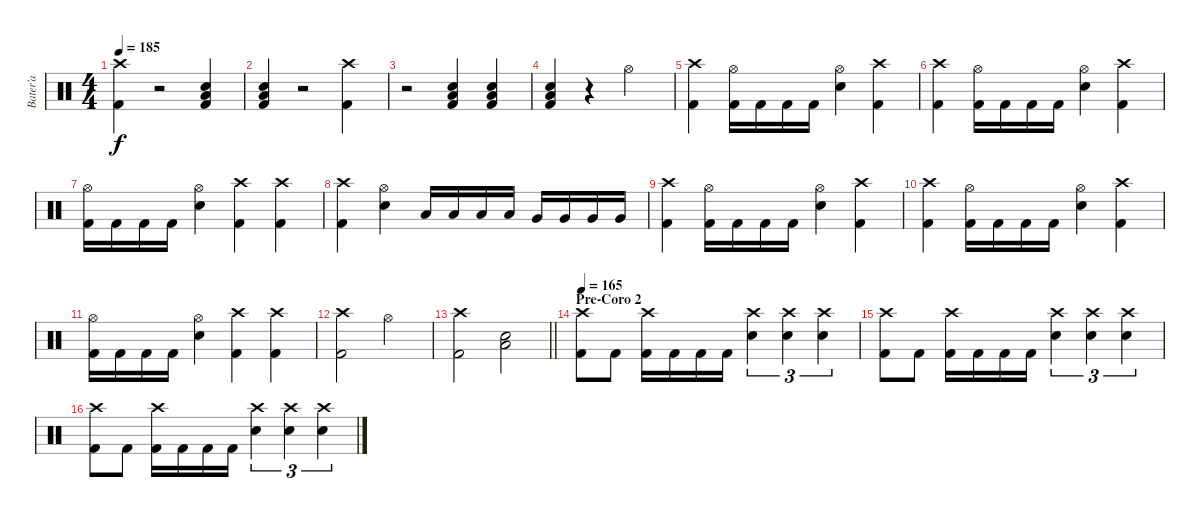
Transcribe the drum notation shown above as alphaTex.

\track ("Bater’a" "Bater’a") {instrument percussion}
\staff {score}
\articulation defaults
\ts (4 4)
\tempo 185
\clef neutral
\ks c
("Crash high (hit)" "Kick (hit) 2").4{dy f} r.2 ("Low Floor Tom (hit)" "Electric Snare (hit)" "Kick (hit) 2").4 |
("Low Floor Tom (hit)" "Electric Snare (hit)" "Kick (hit) 2").4 r.2 ("Crash high (hit)" "Kick (hit) 2").4 |
r.2 ("Low Floor Tom (hit)" "Electric Snare (hit)" "Kick (hit) 2").4 ("Low Floor Tom (hit)" "Electric Snare (hit)" "Kick (hit) 2").4 |
("Low Floor Tom (hit)" "Electric Snare (hit)" "Kick (hit) 2").4 r.4 "Hi-Hat (open)".2 |
("Crash high (hit)" "Kick (hit) 2").4 ("Hi-Hat (open)" "Kick (hit) 2").16 "Kick (hit) 2".16 "Kick (hit) 2".16 "Kick (hit) 2".16 ("Hi-Hat (open)" "Electric Snare (hit)").4 ("Crash high (hit)" "Kick (hit) 2").4 |
("Crash high (hit)" "Kick (hit) 2").4 ("Hi-Hat (open)" "Kick (hit) 2").16 "Kick (hit) 2".16 "Kick (hit) 2".16 "Kick (hit) 2".16 ("Hi-Hat (open)" "Electric Snare (hit)").4 ("Crash high (hit)" "Kick (hit) 2").4 |
("Hi-Hat (open)" "Kick (hit) 2").16 "Kick (hit) 2".16 "Kick (hit) 2".16 "Kick (hit) 2".16 ("Hi-Hat (open)" "Electric Snare (hit)").4 ("Crash high (hit)" "Kick (hit) 2").4 ("Crash high (hit)" "Kick (hit) 2").4 |
("Crash high (hit)" "Kick (hit) 2").4 ("Hi-Hat (open)" "Electric Snare (hit)").4 "Low Tom (hit)".16 "Low Tom (hit)".16 "Low Tom (hit)".16 "Low Tom (hit)".16 "Very Low Tom (hit)".16 "Very Low Tom (hit)".16 "Very Low Tom (hit)".16 "Very Low Tom (hit)".16 |
("Crash high (hit)" "Kick (hit) 2").4 ("Hi-Hat (open)" "Kick (hit) 2").16 "Kick (hit) 2".16 "Kick (hit) 2".16 "Kick (hit) 2".16 ("Hi-Hat (open)" "Electric Snare (hit)").4 ("Crash high (hit)" "Kick (hit) 2").4 |
("Crash high (hit)" "Kick (hit) 2").4 ("Hi-Hat (open)" "Kick (hit) 2").16 "Kick (hit) 2".16 "Kick (hit) 2".16 "Kick (hit) 2".16 ("Hi-Hat (open)" "Electric Snare (hit)").4 ("Crash high (hit)" "Kick (hit) 2").4 |
("Hi-Hat (open)" "Kick (hit) 2").16 "Kick (hit) 2".16 "Kick (hit) 2".16 "Kick (hit) 2".16 ("Hi-Hat (open)" "Electric Snare (hit)").4 ("Crash high (hit)" "Kick (hit) 2").4 ("Crash high (hit)" "Kick (hit) 2").4 |
("Crash high (hit)" "Kick (hit) 2").2 "Hi-Hat (open)".2 |
\barLineRight lightlight
("Crash high (hit)" "Kick (hit) 2").2 ("Electric Snare (hit)" "Low Floor Tom (hit)").2 |
\section ("" "Pre-Coro 2")
\tempo 165
("Crash high (hit)" "Kick (hit) 2").8 "Kick (hit) 2".8 ("Crash high (hit)" "Kick (hit) 2").16 "Kick (hit) 2".16 "Kick (hit) 2".16 "Kick (hit) 2".16 ("Crash high (hit)" "Electric Snare (hit)").4{tu (3 2)} ("Crash high (hit)" "Electric Snare (hit)").4{tu (3 2)} ("Crash high (hit)" "Electric Snare (hit)").4{tu (3 2)} |
("Crash high (hit)" "Kick (hit) 2").8 "Kick (hit) 2".8 ("Crash high (hit)" "Kick (hit) 2").16 "Kick (hit) 2".16 "Kick (hit) 2".16 "Kick (hit) 2".16 ("Crash high (hit)" "Electric Snare (hit)").4{tu (3 2)} ("Crash high (hit)" "Electric Snare (hit)").4{tu (3 2)} ("Crash high (hit)" "Electric Snare (hit)").4{tu (3 2)} |
("Crash high (hit)" "Kick (hit) 2").8 "Kick (hit) 2".8 ("Crash high (hit)" "Kick (hit) 2").16 "Kick (hit) 2".16 "Kick (hit) 2".16 "Kick (hit) 2".16 ("Crash high (hit)" "Electric Snare (hit)").4{tu (3 2)} ("Crash high (hit)" "Electric Snare (hit)").4{tu (3 2)} ("Crash high (hit)" "Electric Snare (hit)").4{tu (3 2)}
